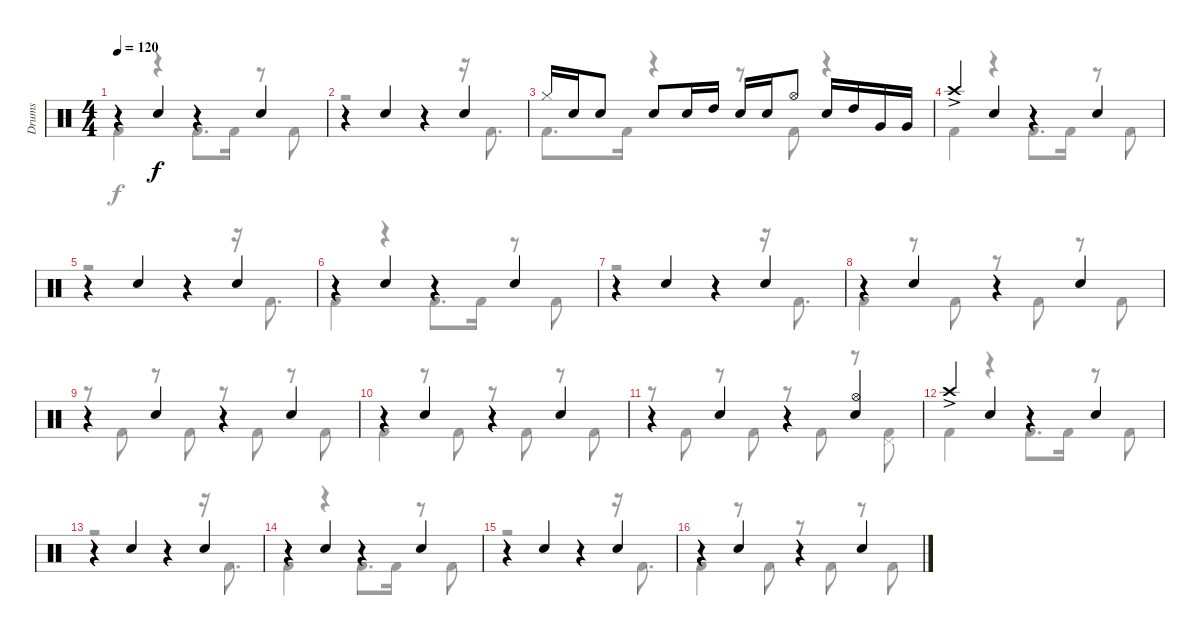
\track ("Drums" "Drums") {instrument percussion}
\staff {score}
\articulation defaults
\voice
\ts (4 4)
\tempo 120
\clef neutral
\ks c
r.4{dy f} "Electric Snare (hit)".4 r.4 "Electric Snare (hit)".4 |
r.4 "Electric Snare (hit)".4 r.4 "Electric Snare (hit)".4 |
"Hi-Hat (closed)".16 "Electric Snare (hit)".16 "Electric Snare (hit)".8 "Electric Snare (hit)".8 "Electric Snare (hit)".16 "High Tom (hit)".16 "Electric Snare (hit)".16 "Electric Snare (hit)".16 "Hi-Hat (open)".8 "Electric Snare (hit)".16 "High Tom (hit)".16 "Very Low Tom (hit)".16 "Very Low Tom (hit)".16 |
"Crash high (hit)"{ac}.4 "Electric Snare (hit)".4 r.4 "Electric Snare (hit)".4 |
r.4 "Electric Snare (hit)".4 r.4 "Electric Snare (hit)".4 |
r.4 "Electric Snare (hit)".4 r.4 "Electric Snare (hit)".4 |
r.4 "Electric Snare (hit)".4 r.4 "Electric Snare (hit)".4 |
r.4 "Electric Snare (hit)".4 r.4 "Electric Snare (hit)".4 |
r.4 "Electric Snare (hit)".4 r.4 "Electric Snare (hit)".4 |
r.4 "Electric Snare (hit)".4 r.4 "Electric Snare (hit)".4 |
r.4 "Electric Snare (hit)".4 r.4 ("Electric Snare (hit)" "Hi-Hat (open)").4 |
"Crash high (hit)"{ac}.4 "Electric Snare (hit)".4 r.4 "Electric Snare (hit)".4 |
r.4 "Electric Snare (hit)".4 r.4 "Electric Snare (hit)".4 |
r.4 "Electric Snare (hit)".4 r.4 "Electric Snare (hit)".4 |
r.4 "Electric Snare (hit)".4 r.4 "Electric Snare (hit)".4 |
r.4 "Electric Snare (hit)".4 r.4 "Electric Snare (hit)".4
\voice
\clef neutral
\ottava regular
\simile none
\ks c "Kick (hit) 2".4{dy f}
r.4 "Kick (hit) 2".8{d} "Kick (hit) 2".16 r.8 "Kick (hit) 2".8 |
r.2 r.4 r.16 "Kick (hit) 2".8{d} |
"Kick (hit) 2".8{d} "Kick (hit) 2".16 r.4 r.8 "Kick (hit) 2".8 r.4 |
"Kick (hit) 2".4 r.4 "Kick (hit) 2".8{d} "Kick (hit) 2".16 r.8 "Kick (hit) 2".8 |
r.2 r.4 r.16 "Kick (hit) 2".8{d} |
"Kick (hit) 2".4 r.4 "Kick (hit) 2".8{d} "Kick (hit) 2".16 r.8 "Kick (hit) 2".8 |
r.2 r.4 r.16 "Kick (hit) 2".8{d} |
"Kick (hit) 2".4 r.8 "Kick (hit) 2".8 r.8 "Kick (hit) 2".8 r.8 "Kick (hit) 2".8 |
r.8 "Kick (hit) 2".8 r.8 "Kick (hit) 2".8 r.8 "Kick (hit) 2".8 r.8 "Kick (hit) 2".8 |
"Kick (hit) 2".4 r.8 "Kick (hit) 2".8 r.8 "Kick (hit) 2".8 r.8 "Kick (hit) 2".8 |
r.8 "Kick (hit) 2".8 r.8 "Kick (hit) 2".8 r.8 "Kick (hit) 2".8 r.8 ("Pedal Hi-Hat (hit)" "Kick (hit) 2").8 |
"Kick (hit) 2".4 r.4 "Kick (hit) 2".8{d} "Kick (hit) 2".16 r.8 "Kick (hit) 2".8 |
r.2 r.4 r.16 "Kick (hit) 2".8{d} |
"Kick (hit) 2".4 r.4 "Kick (hit) 2".8{d} "Kick (hit) 2".16 r.8 "Kick (hit) 2".8 |
r.2 r.4 r.16 "Kick (hit) 2".8{d} |
"Kick (hit) 2".4 r.8 "Kick (hit) 2".8 r.8 "Kick (hit) 2".8 r.8 "Kick (hit) 2".8
